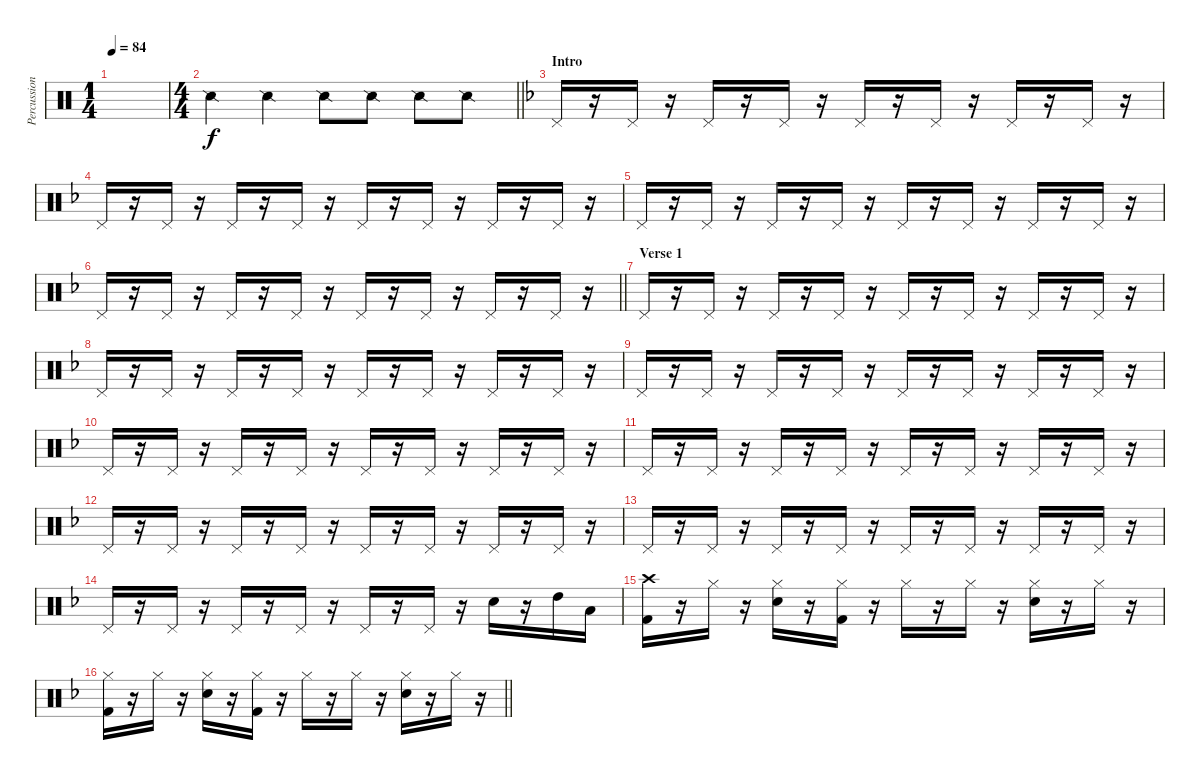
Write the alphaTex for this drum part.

\track ("Percussion" "Percussion") {instrument percussion}
\staff {score}
\articulation defaults
\ts (1 4)
\tempo 84
\clef neutral
\ks c
|
\ts (4 4)
\barLineRight lightlight "Snare (side stick) 2".4 "Snare (side stick) 2".4 "Snare (side stick) 2".8 "Snare (side stick) 2".8 "Snare (side stick) 2".8 "Snare (side stick) 2".8
|
\section ("" "Intro")
\ks f "Pedal Hi-Hat (hit)".16{volume 4}
r.16 "Pedal Hi-Hat (hit)".16 r.16 "Pedal Hi-Hat (hit)".16 r.16 "Pedal Hi-Hat (hit)".16 r.16 "Pedal Hi-Hat (hit)".16 r.16 "Pedal Hi-Hat (hit)".16 r.16 "Pedal Hi-Hat (hit)".16 r.16 "Pedal Hi-Hat (hit)".16 r.16 |
"Pedal Hi-Hat (hit)".16 r.16 "Pedal Hi-Hat (hit)".16 r.16 "Pedal Hi-Hat (hit)".16 r.16 "Pedal Hi-Hat (hit)".16 r.16 "Pedal Hi-Hat (hit)".16 r.16 "Pedal Hi-Hat (hit)".16 r.16 "Pedal Hi-Hat (hit)".16 r.16 "Pedal Hi-Hat (hit)".16 r.16 |
"Pedal Hi-Hat (hit)".16 r.16 "Pedal Hi-Hat (hit)".16 r.16 "Pedal Hi-Hat (hit)".16 r.16 "Pedal Hi-Hat (hit)".16 r.16 "Pedal Hi-Hat (hit)".16 r.16 "Pedal Hi-Hat (hit)".16 r.16 "Pedal Hi-Hat (hit)".16 r.16 "Pedal Hi-Hat (hit)".16 r.16 |
\barLineRight lightlight "Pedal Hi-Hat (hit)".16
r.16 "Pedal Hi-Hat (hit)".16 r.16 "Pedal Hi-Hat (hit)".16 r.16 "Pedal Hi-Hat (hit)".16 r.16 "Pedal Hi-Hat (hit)".16 r.16 "Pedal Hi-Hat (hit)".16 r.16 "Pedal Hi-Hat (hit)".16 r.16 "Pedal Hi-Hat (hit)".16 r.16 |
\section ("" "Verse 1")
"Pedal Hi-Hat (hit)".16 r.16 "Pedal Hi-Hat (hit)".16 r.16 "Pedal Hi-Hat (hit)".16 r.16 "Pedal Hi-Hat (hit)".16 r.16 "Pedal Hi-Hat (hit)".16 r.16 "Pedal Hi-Hat (hit)".16 r.16 "Pedal Hi-Hat (hit)".16 r.16 "Pedal Hi-Hat (hit)".16 r.16 |
"Pedal Hi-Hat (hit)".16 r.16 "Pedal Hi-Hat (hit)".16 r.16 "Pedal Hi-Hat (hit)".16 r.16 "Pedal Hi-Hat (hit)".16 r.16 "Pedal Hi-Hat (hit)".16 r.16 "Pedal Hi-Hat (hit)".16 r.16 "Pedal Hi-Hat (hit)".16 r.16 "Pedal Hi-Hat (hit)".16 r.16 |
"Pedal Hi-Hat (hit)".16 r.16 "Pedal Hi-Hat (hit)".16 r.16 "Pedal Hi-Hat (hit)".16 r.16 "Pedal Hi-Hat (hit)".16 r.16 "Pedal Hi-Hat (hit)".16 r.16 "Pedal Hi-Hat (hit)".16 r.16 "Pedal Hi-Hat (hit)".16 r.16 "Pedal Hi-Hat (hit)".16 r.16 |
"Pedal Hi-Hat (hit)".16 r.16 "Pedal Hi-Hat (hit)".16 r.16 "Pedal Hi-Hat (hit)".16 r.16 "Pedal Hi-Hat (hit)".16 r.16 "Pedal Hi-Hat (hit)".16 r.16 "Pedal Hi-Hat (hit)".16 r.16 "Pedal Hi-Hat (hit)".16 r.16 "Pedal Hi-Hat (hit)".16 r.16 |
"Pedal Hi-Hat (hit)".16 r.16 "Pedal Hi-Hat (hit)".16 r.16 "Pedal Hi-Hat (hit)".16 r.16 "Pedal Hi-Hat (hit)".16 r.16 "Pedal Hi-Hat (hit)".16 r.16 "Pedal Hi-Hat (hit)".16 r.16 "Pedal Hi-Hat (hit)".16 r.16 "Pedal Hi-Hat (hit)".16 r.16 |
"Pedal Hi-Hat (hit)".16 r.16 "Pedal Hi-Hat (hit)".16 r.16 "Pedal Hi-Hat (hit)".16 r.16 "Pedal Hi-Hat (hit)".16 r.16 "Pedal Hi-Hat (hit)".16 r.16 "Pedal Hi-Hat (hit)".16 r.16 "Pedal Hi-Hat (hit)".16 r.16 "Pedal Hi-Hat (hit)".16 r.16 |
"Pedal Hi-Hat (hit)".16 r.16 "Pedal Hi-Hat (hit)".16 r.16 "Pedal Hi-Hat (hit)".16 r.16 "Pedal Hi-Hat (hit)".16 r.16 "Pedal Hi-Hat (hit)".16 r.16 "Pedal Hi-Hat (hit)".16 r.16 "Pedal Hi-Hat (hit)".16 r.16 "Pedal Hi-Hat (hit)".16 r.16 |
"Pedal Hi-Hat (hit)".16 r.16 "Pedal Hi-Hat (hit)".16 r.16 "Pedal Hi-Hat (hit)".16 r.16 "Pedal Hi-Hat (hit)".16 r.16 "Pedal Hi-Hat (hit)".16 r.16 "Pedal Hi-Hat (hit)".16 r.16{volume 9} "Snare (hit) 2".16 r.16 "High Tom (hit)".16 "Low Tom (hit)".16 |
("Crash high (hit)" "Kick (hit) 2").16 r.16 "Hi-Hat (closed)".16 r.16 ("Hi-Hat (closed)" "Snare (hit) 2").16 r.16 ("Hi-Hat (closed)" "Kick (hit) 2").16 r.16 "Hi-Hat (closed)".16 r.16 "Hi-Hat (closed)".16 r.16 ("Hi-Hat (closed)" "Snare (hit) 2").16 r.16 "Hi-Hat (closed)".16 r.16 |
\barLineRight lightlight
("Hi-Hat (closed)" "Kick (hit) 2").16 r.16 "Hi-Hat (closed)".16 r.16 ("Hi-Hat (closed)" "Snare (hit) 2").16 r.16 ("Hi-Hat (closed)" "Kick (hit) 2").16 r.16 "Hi-Hat (closed)".16 r.16 "Hi-Hat (closed)".16 r.16 ("Hi-Hat (closed)" "Snare (hit) 2").16 r.16 "Hi-Hat (closed)".16 r.16
